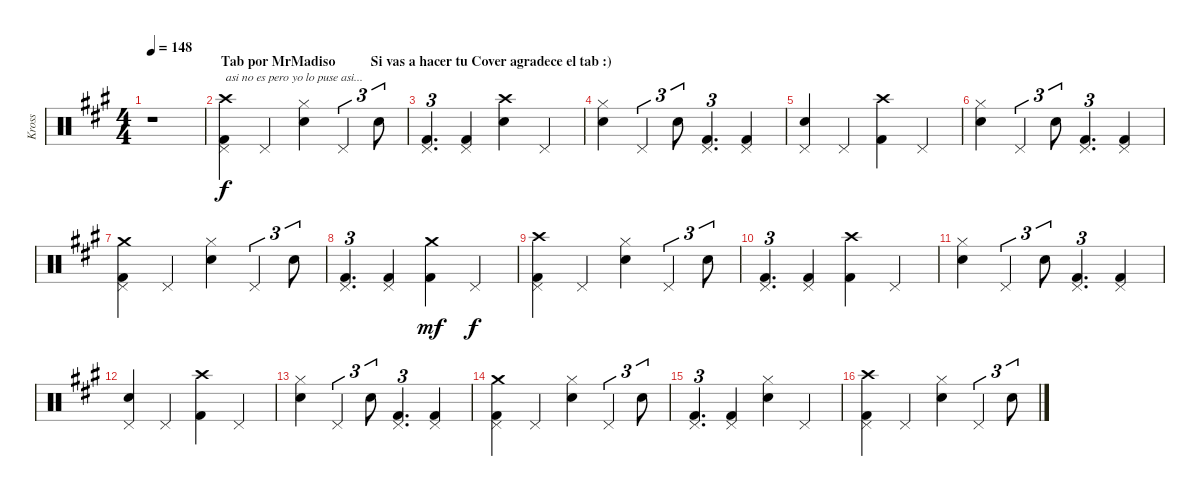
\track ("Kross" "Kross") {instrument percussion}
\staff {score}
\articulation defaults
\ts (4 4)
\section ("" "                     Tab por MrMadiso          Si vas a hacer tu Cover agradece el tab :)")
\tempo 148
\clef neutral
\ks a
r.1{dy f} |
("Crash high (hit)" "Pedal Hi-Hat (hit)" "Kick (hit) 2").4{txt "asi no es pero yo lo puse asi..."} "Pedal Hi-Hat (hit)".4 ("Hi-Hat (closed)" "Electric Snare (hit)").4 "Pedal Hi-Hat (hit)".4{tu (3 2)} "Electric Snare (hit)".8{tu (3 2)} |
("Pedal Hi-Hat (hit)" "Kick (hit) 2").4{d tu (3 2)} ("Pedal Hi-Hat (hit)" "Kick (hit) 2").4 ("Crash high (hit)" "Electric Snare (hit)").4 "Pedal Hi-Hat (hit)".4 |
("Hi-Hat (closed)" "Electric Snare (hit)").4 "Pedal Hi-Hat (hit)".4{tu (3 2)} "Electric Snare (hit)".8{tu (3 2)} ("Pedal Hi-Hat (hit)" "Kick (hit) 2").4{d tu (3 2)} ("Pedal Hi-Hat (hit)" "Kick (hit) 2").4 |
("Pedal Hi-Hat (hit)" "Electric Snare (hit)").4 "Pedal Hi-Hat (hit)".4 ("Crash high (hit)" "Kick (hit) 2").4 "Pedal Hi-Hat (hit)".4 |
("Hi-Hat (closed)" "Electric Snare (hit)").4 "Pedal Hi-Hat (hit)".4{tu (3 2)} "Electric Snare (hit)".8{tu (3 2)} ("Pedal Hi-Hat (hit)" "Kick (hit) 2").4{d tu (3 2)} ("Pedal Hi-Hat (hit)" "Kick (hit) 2").4 |
("Crash medium (hit)" "Pedal Hi-Hat (hit)" "Kick (hit) 2").4 "Pedal Hi-Hat (hit)".4 ("Hi-Hat (closed)" "Electric Snare (hit)").4 "Pedal Hi-Hat (hit)".4{tu (3 2)} "Electric Snare (hit)".8{tu (3 2)} |
("Pedal Hi-Hat (hit)" "Kick (hit) 2").4{d tu (3 2)} ("Pedal Hi-Hat (hit)" "Kick (hit) 2").4 ("Crash medium (hit)" "Kick (hit) 2").4{dy mf} "Pedal Hi-Hat (hit)".4{dy f} |
("Crash high (hit)" "Pedal Hi-Hat (hit)" "Kick (hit) 2").4 "Pedal Hi-Hat (hit)".4 ("Hi-Hat (closed)" "Electric Snare (hit)").4 "Pedal Hi-Hat (hit)".4{tu (3 2)} "Electric Snare (hit)".8{tu (3 2)} |
("Pedal Hi-Hat (hit)" "Kick (hit) 2").4{d tu (3 2)} ("Pedal Hi-Hat (hit)" "Kick (hit) 2").4 ("Crash high (hit)" "Kick (hit) 2").4 "Pedal Hi-Hat (hit)".4 |
("Hi-Hat (closed)" "Electric Snare (hit)").4 "Pedal Hi-Hat (hit)".4{tu (3 2)} "Electric Snare (hit)".8{tu (3 2)} ("Pedal Hi-Hat (hit)" "Kick (hit) 2").4{d tu (3 2)} ("Pedal Hi-Hat (hit)" "Kick (hit) 2").4 |
("Pedal Hi-Hat (hit)" "Electric Snare (hit)").4 "Pedal Hi-Hat (hit)".4 ("Crash high (hit)" "Kick (hit) 2").4 "Pedal Hi-Hat (hit)".4 |
("Hi-Hat (closed)" "Electric Snare (hit)").4 "Pedal Hi-Hat (hit)".4{tu (3 2)} "Electric Snare (hit)".8{tu (3 2)} ("Pedal Hi-Hat (hit)" "Kick (hit) 2").4{d tu (3 2)} ("Pedal Hi-Hat (hit)" "Kick (hit) 2").4 |
("Crash medium (hit)" "Pedal Hi-Hat (hit)" "Kick (hit) 2").4 "Pedal Hi-Hat (hit)".4 ("Hi-Hat (closed)" "Electric Snare (hit)").4 "Pedal Hi-Hat (hit)".4{tu (3 2)} "Electric Snare (hit)".8{tu (3 2)} |
("Pedal Hi-Hat (hit)" "Kick (hit) 2").4{d tu (3 2)} ("Pedal Hi-Hat (hit)" "Kick (hit) 2").4 ("Hi-Hat (closed)" "Electric Snare (hit)").4 "Pedal Hi-Hat (hit)".4 |
("Crash high (hit)" "Pedal Hi-Hat (hit)" "Kick (hit) 2").4 "Pedal Hi-Hat (hit)".4 ("Hi-Hat (closed)" "Electric Snare (hit)").4 "Pedal Hi-Hat (hit)".4{tu (3 2)} "Electric Snare (hit)".8{tu (3 2)}
